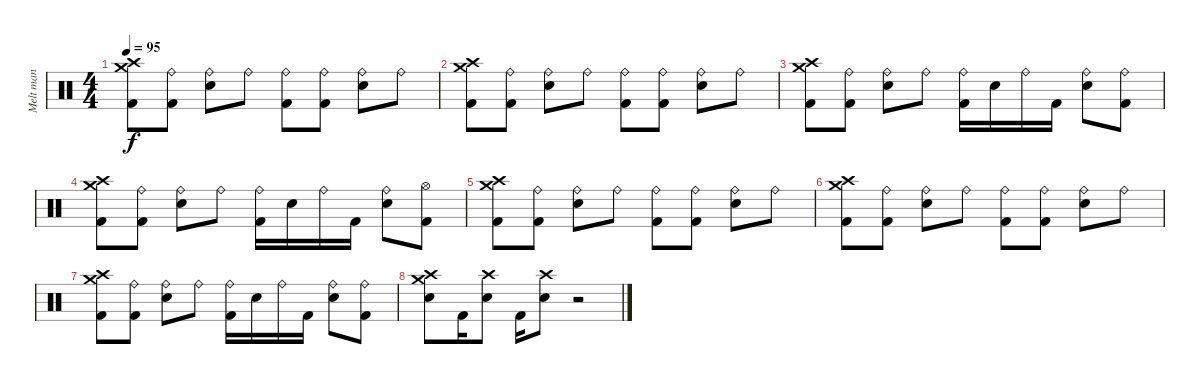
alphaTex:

\track ("Melt man" "Melt man") {instrument percussion}
\staff {score}
\articulation defaults
\ts (4 4)
\tempo 95
\clef neutral
\ks c
("Crash medium (hit)" "Crash high (hit)" "Kick (hit) 2").8{dy f} ("Ride (bell)" "Kick (hit) 2").8 ("Ride (bell)" "Snare (hit) 2").8 "Ride (bell)".8 ("Ride (bell)" "Kick (hit) 2").8 ("Ride (bell)" "Kick (hit) 2").8 ("Ride (bell)" "Snare (hit) 2").8 "Ride (bell)".8 |
("Crash medium (hit)" "Crash high (hit)" "Kick (hit) 2").8 ("Ride (bell)" "Kick (hit) 2").8 ("Ride (bell)" "Snare (hit) 2").8 "Ride (bell)".8 ("Ride (bell)" "Kick (hit) 2").8 ("Ride (bell)" "Kick (hit) 2").8 ("Ride (bell)" "Snare (hit) 2").8 "Ride (bell)".8 |
("Crash medium (hit)" "Crash high (hit)" "Kick (hit) 2").8 ("Ride (bell)" "Kick (hit) 2").8 ("Ride (bell)" "Snare (hit) 2").8 "Ride (bell)".8 ("Ride (bell)" "Kick (hit) 2").16 "Snare (hit) 2".16 "Ride (bell)".16 "Kick (hit) 2".16 ("Ride (bell)" "Snare (hit) 2").8 ("Ride (bell)" "Kick (hit) 2").8 |
("Crash medium (hit)" "Crash high (hit)" "Kick (hit) 2").8 ("Ride (bell)" "Kick (hit) 2").8 ("Ride (bell)" "Snare (hit) 2").8 "Ride (bell)".8 ("Ride (bell)" "Kick (hit) 2").16 "Snare (hit) 2".16 "Ride (bell)".16 "Kick (hit) 2".16 ("Ride (bell)" "Snare (hit) 2").8 ("Hi-Hat (open)" "Kick (hit) 2").8 |
("Crash medium (hit)" "Crash high (hit)" "Kick (hit) 2").8 ("Ride (bell)" "Kick (hit) 2").8 ("Ride (bell)" "Snare (hit) 2").8 "Ride (bell)".8 ("Ride (bell)" "Kick (hit) 2").8 ("Ride (bell)" "Kick (hit) 2").8 ("Ride (bell)" "Snare (hit) 2").8 "Ride (bell)".8 |
("Crash medium (hit)" "Crash high (hit)" "Kick (hit) 2").8 ("Ride (bell)" "Kick (hit) 2").8 ("Ride (bell)" "Snare (hit) 2").8 "Ride (bell)".8 ("Ride (bell)" "Kick (hit) 2").8 ("Ride (bell)" "Kick (hit) 2").8 ("Ride (bell)" "Snare (hit) 2").8 "Ride (bell)".8 |
("Crash medium (hit)" "Crash high (hit)" "Kick (hit) 2").8 ("Ride (bell)" "Kick (hit) 2").8 ("Ride (bell)" "Snare (hit) 2").8 "Ride (bell)".8 ("Ride (bell)" "Kick (hit) 2").16 "Snare (hit) 2".16 "Ride (bell)".16 "Kick (hit) 2".16 ("Ride (bell)" "Snare (hit) 2").8 ("Ride (bell)" "Kick (hit) 2").8 |
("Crash medium (hit)" "Crash high (hit)" "Snare (hit) 2").8 "Kick (hit) 2".16 ("Crash high (hit)" "Snare (hit) 2").8 "Kick (hit) 2".16 ("Crash high (hit)" "Snare (hit) 2").8 r.2
